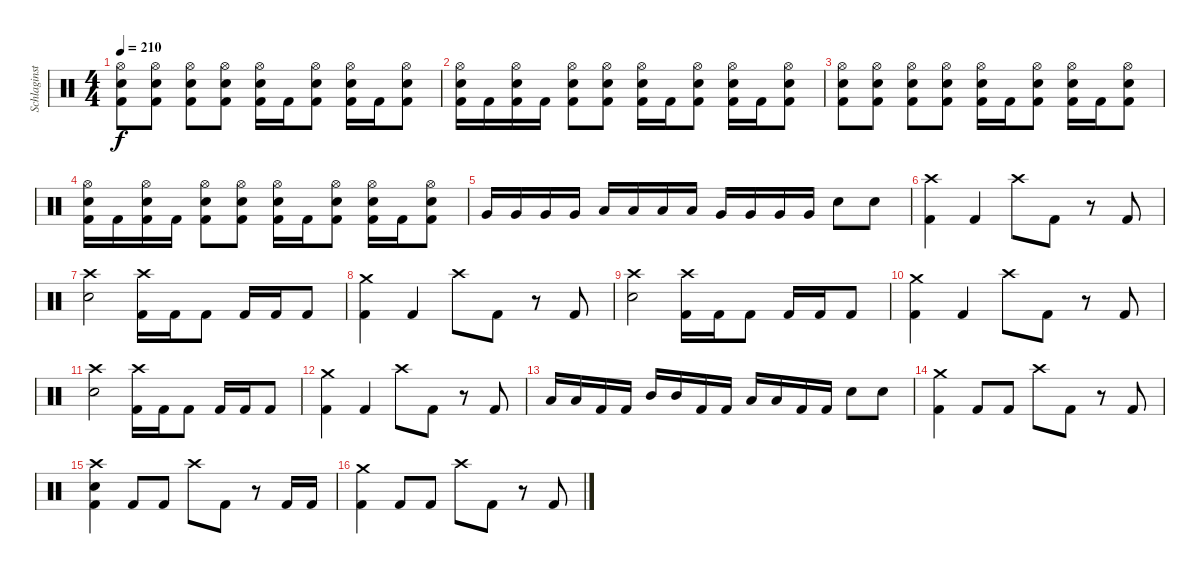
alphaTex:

\track ("Schlaginstrumente - Auswahl" "Schlaginst") {instrument percussion}
\staff {score}
\articulation defaults
\ts (4 4)
\tempo 210
\clef neutral
\ks c
("Hi-Hat (open)" "Snare (hit) 2" "Kick (hit) 2").8{dy f} ("Hi-Hat (open)" "Snare (hit) 2" "Kick (hit) 2").8 ("Hi-Hat (open)" "Snare (hit) 2" "Kick (hit) 2").8 ("Hi-Hat (open)" "Snare (hit) 2" "Kick (hit) 2").8 ("Hi-Hat (open)" "Snare (hit) 2" "Kick (hit) 2").16 "Kick (hit) 2".16 ("Hi-Hat (open)" "Snare (hit) 2" "Kick (hit) 2").8 ("Hi-Hat (open)" "Snare (hit) 2" "Kick (hit) 2").16 "Kick (hit) 2".16 ("Hi-Hat (open)" "Snare (hit) 2" "Kick (hit) 2").8 |
("Hi-Hat (open)" "Snare (hit) 2" "Kick (hit) 2").16 "Kick (hit) 2".16 ("Hi-Hat (open)" "Snare (hit) 2" "Kick (hit) 2").16 "Kick (hit) 2".16 ("Hi-Hat (open)" "Snare (hit) 2" "Kick (hit) 2").8 ("Hi-Hat (open)" "Snare (hit) 2" "Kick (hit) 2").8 ("Hi-Hat (open)" "Snare (hit) 2" "Kick (hit) 2").16 "Kick (hit) 2".16 ("Hi-Hat (open)" "Snare (hit) 2" "Kick (hit) 2").8 ("Hi-Hat (open)" "Snare (hit) 2" "Kick (hit) 2").16 "Kick (hit) 2".16 ("Hi-Hat (open)" "Snare (hit) 2" "Kick (hit) 2").8 |
("Hi-Hat (open)" "Snare (hit) 2" "Kick (hit) 2").8 ("Hi-Hat (open)" "Snare (hit) 2" "Kick (hit) 2").8 ("Hi-Hat (open)" "Snare (hit) 2" "Kick (hit) 2").8 ("Hi-Hat (open)" "Snare (hit) 2" "Kick (hit) 2").8 ("Hi-Hat (open)" "Snare (hit) 2" "Kick (hit) 2").16 "Kick (hit) 2".16 ("Hi-Hat (open)" "Snare (hit) 2" "Kick (hit) 2").8 ("Hi-Hat (open)" "Snare (hit) 2" "Kick (hit) 2").16 "Kick (hit) 2".16 ("Hi-Hat (open)" "Snare (hit) 2" "Kick (hit) 2").8 |
("Hi-Hat (open)" "Snare (hit) 2" "Kick (hit) 2").16 "Kick (hit) 2".16 ("Hi-Hat (open)" "Snare (hit) 2" "Kick (hit) 2").16 "Kick (hit) 2".16 ("Hi-Hat (open)" "Snare (hit) 2" "Kick (hit) 2").8 ("Hi-Hat (open)" "Snare (hit) 2" "Kick (hit) 2").8 ("Hi-Hat (open)" "Snare (hit) 2" "Kick (hit) 2").16 "Kick (hit) 2".16 ("Hi-Hat (open)" "Snare (hit) 2" "Kick (hit) 2").8 ("Hi-Hat (open)" "Snare (hit) 2" "Kick (hit) 2").16 "Kick (hit) 2".16 ("Hi-Hat (open)" "Snare (hit) 2" "Kick (hit) 2").8 |
"Very Low Tom (hit)".16 "Very Low Tom (hit)".16 "Very Low Tom (hit)".16 "Very Low Tom (hit)".16 "Low Tom (hit)".16 "Low Tom (hit)".16 "Low Tom (hit)".16 "Low Tom (hit)".16 "Very Low Tom (hit)".16 "Very Low Tom (hit)".16 "Very Low Tom (hit)".16 "Very Low Tom (hit)".16 "Snare (hit) 2".8 "Snare (hit) 2".8 |
("Crash high (hit)" "Kick (hit) 2").4 "Kick (hit) 2".4 "Crash high (hit)".8 "Kick (hit) 2".8 r.8 "Kick (hit) 2".8 |
("Snare (hit) 2" "Crash high (hit)").2 ("Crash high (hit)" "Kick (hit) 2").16 "Kick (hit) 2".16 "Kick (hit) 2".8 "Kick (hit) 2".16 "Kick (hit) 2".16 "Kick (hit) 2".8 |
("Crash medium (hit)" "Kick (hit) 2").4 "Kick (hit) 2".4 "Crash high (hit)".8 "Kick (hit) 2".8 r.8 "Kick (hit) 2".8 |
("Snare (hit) 2" "Crash high (hit)").2 ("Crash high (hit)" "Kick (hit) 2").16 "Kick (hit) 2".16 "Kick (hit) 2".8 "Kick (hit) 2".16 "Kick (hit) 2".16 "Kick (hit) 2".8 |
("Crash medium (hit)" "Kick (hit) 2").4 "Kick (hit) 2".4 "Crash high (hit)".8 "Kick (hit) 2".8 r.8 "Kick (hit) 2".8 |
("Snare (hit) 2" "Crash high (hit)").2 ("Crash high (hit)" "Kick (hit) 2").16 "Kick (hit) 2".16 "Kick (hit) 2".8 "Kick (hit) 2".16 "Kick (hit) 2".16 "Kick (hit) 2".8 |
("Crash medium (hit)" "Kick (hit) 2").4 "Kick (hit) 2".4 "Crash high (hit)".8 "Kick (hit) 2".8 r.8 "Kick (hit) 2".8 |
"Low Tom (hit)".16 "Low Tom (hit)".16 "Kick (hit) 2".16 "Kick (hit) 2".16 "Mid Tom (hit)".16 "Mid Tom (hit)".16 "Kick (hit) 2".16 "Kick (hit) 2".16 "Low Tom (hit)".16 "Low Tom (hit)".16 "Kick (hit) 2".16 "Kick (hit) 2".16 "Snare (hit) 2".8 "Snare (hit) 2".8 |
("Crash medium (hit)" "Kick (hit) 2").4 "Kick (hit) 2".8 "Kick (hit) 2".8 "Crash high (hit)".8 "Kick (hit) 2".8 r.8 "Kick (hit) 2".8 |
("Snare (hit) 2" "Crash high (hit)" "Kick (hit) 2").4 "Kick (hit) 2".8 "Kick (hit) 2".8 "Crash high (hit)".8 "Kick (hit) 2".8 r.8 "Kick (hit) 2".16 "Kick (hit) 2".16 |
("Crash medium (hit)" "Kick (hit) 2").4 "Kick (hit) 2".8 "Kick (hit) 2".8 "Crash high (hit)".8 "Kick (hit) 2".8 r.8 "Kick (hit) 2".8
